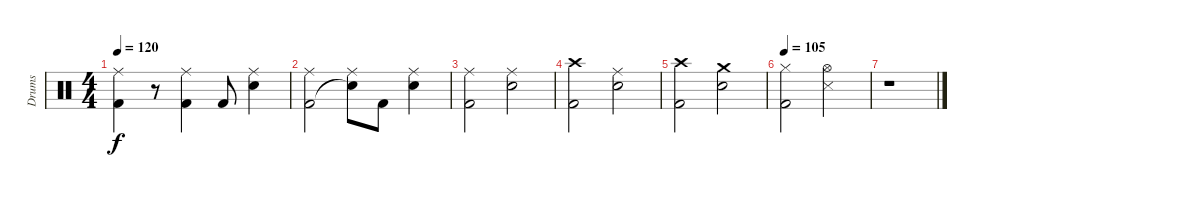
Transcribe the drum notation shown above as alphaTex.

\track ("Drums" "Drums") {instrument percussion}
\staff {score}
\articulation defaults
\ts (4 4)
\tempo 120
\clef neutral
\ks c
("Kick (hit) 2" "Ride (middle)").4{dy f} r.8 ("Kick (hit) 2" "Ride (middle)").4 "Kick (hit) 2".8 ("Electric Snare (hit)" "Ride (middle)").4 |
("Kick (hit) 2" "Ride (middle)").2 ("Snare (hit)"{t} "Ride (middle)").8 "Kick (hit) 2".8 ("Electric Snare (hit)" "Ride (middle)").4 |
("Kick (hit) 2" "Ride (middle)").2 ("Electric Snare (hit)" "Ride (middle)").2 |
("Kick (hit) 2" "Crash high (hit)").2 ("Electric Snare (hit)" "Ride (middle)").2 |
("Kick (hit) 2" "Crash high (hit)").2 ("Electric Snare (hit)" "Crash medium (hit)").2 |
\tempo 105
("Kick (hit) 2" "Hi-Hat (closed)").2 ("Snare (side stick) 3" "Hi-Hat (open)").2 |
r.1
